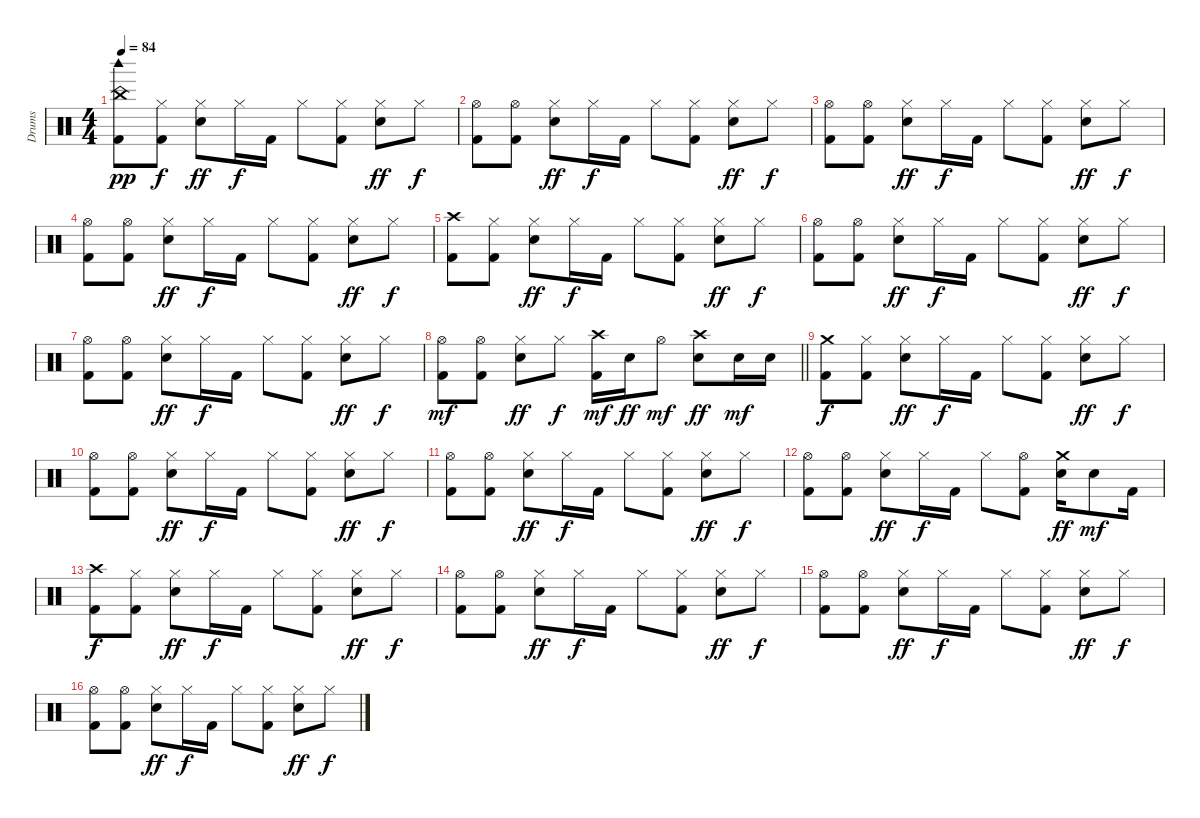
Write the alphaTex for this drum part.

\track ("Drums" "Drums") {instrument percussion}
\staff {score}
\articulation defaults
\ts (4 4)
\tempo 84
\clef neutral
\ks c
("China (hit)" "Woodblock high (hit)" "Kick (hit) 2").8{dy pp balance 8} ("Hi-Hat (closed)" "Kick (hit) 2").8{dy f} ("Hi-Hat (closed)" "Electric Snare (hit)").8{dy ff} "Hi-Hat (closed)".16{dy f} "Kick (hit) 2".16 "Hi-Hat (closed)".8 ("Hi-Hat (closed)" "Kick (hit) 2").8 ("Hi-Hat (closed)" "Electric Snare (hit)").8{dy ff} "Hi-Hat (closed)".8{dy f} |
("Hi-Hat (open)" "Kick (hit) 2").8 ("Hi-Hat (open)" "Kick (hit) 2").8 ("Hi-Hat (closed)" "Electric Snare (hit)").8{dy ff} "Hi-Hat (closed)".16{dy f} "Kick (hit) 2".16 "Hi-Hat (closed)".8 ("Hi-Hat (closed)" "Kick (hit) 2").8 ("Hi-Hat (closed)" "Electric Snare (hit)").8{dy ff} "Hi-Hat (closed)".8{dy f} |
("Hi-Hat (open)" "Kick (hit) 2").8 ("Hi-Hat (open)" "Kick (hit) 2").8 ("Hi-Hat (closed)" "Electric Snare (hit)").8{dy ff} "Hi-Hat (closed)".16{dy f} "Kick (hit) 2".16 "Hi-Hat (closed)".8 ("Hi-Hat (closed)" "Kick (hit) 2").8 ("Hi-Hat (closed)" "Electric Snare (hit)").8{dy ff} "Hi-Hat (closed)".8{dy f} |
("Hi-Hat (open)" "Kick (hit) 2").8 ("Hi-Hat (open)" "Kick (hit) 2").8 ("Hi-Hat (closed)" "Electric Snare (hit)").8{dy ff} "Hi-Hat (closed)".16{dy f} "Kick (hit) 2".16 "Hi-Hat (closed)".8 ("Hi-Hat (closed)" "Kick (hit) 2").8 ("Hi-Hat (closed)" "Electric Snare (hit)").8{dy ff} "Hi-Hat (closed)".8{dy f} |
("Crash high (hit)" "Kick (hit) 2").8 ("Hi-Hat (closed)" "Kick (hit) 2").8 ("Hi-Hat (closed)" "Electric Snare (hit)").8{dy ff} "Hi-Hat (closed)".16{dy f} "Kick (hit) 2".16 "Hi-Hat (closed)".8 ("Hi-Hat (closed)" "Kick (hit) 2").8 ("Hi-Hat (closed)" "Electric Snare (hit)").8{dy ff} "Hi-Hat (closed)".8{dy f} |
("Hi-Hat (open)" "Kick (hit) 2").8 ("Hi-Hat (open)" "Kick (hit) 2").8 ("Hi-Hat (closed)" "Electric Snare (hit)").8{dy ff} "Hi-Hat (closed)".16{dy f} "Kick (hit) 2".16 "Hi-Hat (closed)".8 ("Hi-Hat (closed)" "Kick (hit) 2").8 ("Hi-Hat (closed)" "Electric Snare (hit)").8{dy ff} "Hi-Hat (closed)".8{dy f} |
("Hi-Hat (open)" "Kick (hit) 2").8 ("Hi-Hat (open)" "Kick (hit) 2").8 ("Hi-Hat (closed)" "Electric Snare (hit)").8{dy ff} "Hi-Hat (closed)".16{dy f} "Kick (hit) 2".16 "Hi-Hat (closed)".8 ("Hi-Hat (closed)" "Kick (hit) 2").8 ("Hi-Hat (closed)" "Electric Snare (hit)").8{dy ff} "Hi-Hat (closed)".8{dy f} |
\barLineRight lightlight
("Hi-Hat (open)" "Kick (hit) 2").8{dy mf} ("Hi-Hat (open)" "Kick (hit) 2").8 ("Hi-Hat (closed)" "Electric Snare (hit)").8{dy ff} "Hi-Hat (closed)".8{dy f} ("Crash high (hit)" "Kick (hit) 2").16{dy mf} "Electric Snare (hit)".16{dy ff} "Hi-Hat (open)".8{dy mf} ("Crash high (hit)" "Electric Snare (hit)").8{dy ff} "Electric Snare (hit)".16{dy mf} "Electric Snare (hit)".16 |
("Crash medium (hit)" "Kick (hit) 2").8{dy f} ("Hi-Hat (closed)" "Kick (hit) 2").8 ("Hi-Hat (closed)" "Electric Snare (hit)").8{dy ff} "Hi-Hat (closed)".16{dy f} "Kick (hit) 2".16 "Hi-Hat (closed)".8 ("Hi-Hat (closed)" "Kick (hit) 2").8 ("Hi-Hat (closed)" "Electric Snare (hit)").8{dy ff} "Hi-Hat (closed)".8{dy f} |
("Hi-Hat (open)" "Kick (hit) 2").8 ("Hi-Hat (open)" "Kick (hit) 2").8 ("Hi-Hat (closed)" "Electric Snare (hit)").8{dy ff} "Hi-Hat (closed)".16{dy f} "Kick (hit) 2".16 "Hi-Hat (closed)".8 ("Hi-Hat (closed)" "Kick (hit) 2").8 ("Hi-Hat (closed)" "Electric Snare (hit)").8{dy ff} "Hi-Hat (closed)".8{dy f} |
("Hi-Hat (open)" "Kick (hit) 2").8 ("Hi-Hat (open)" "Kick (hit) 2").8 ("Hi-Hat (closed)" "Electric Snare (hit)").8{dy ff} "Hi-Hat (closed)".16{dy f} "Kick (hit) 2".16 "Hi-Hat (closed)".8 ("Hi-Hat (closed)" "Kick (hit) 2").8 ("Hi-Hat (closed)" "Electric Snare (hit)").8{dy ff} "Hi-Hat (closed)".8{dy f} |
("Hi-Hat (open)" "Kick (hit) 2").8 ("Hi-Hat (open)" "Kick (hit) 2").8 ("Hi-Hat (closed)" "Electric Snare (hit)").8{dy ff} "Hi-Hat (closed)".16{dy f} "Kick (hit) 2".16 "Hi-Hat (closed)".8 ("Hi-Hat (open)" "Kick (hit) 2").8 ("Crash medium (hit)" "Electric Snare (hit)").16{dy ff} "Electric Snare (hit)".8{dy mf} "Kick (hit) 2".16 |
("Crash high (hit)" "Kick (hit) 2").8{dy f} ("Hi-Hat (closed)" "Kick (hit) 2").8 ("Hi-Hat (closed)" "Electric Snare (hit)").8{dy ff} "Hi-Hat (closed)".16{dy f} "Kick (hit) 2".16 "Hi-Hat (closed)".8 ("Hi-Hat (closed)" "Kick (hit) 2").8 ("Hi-Hat (closed)" "Electric Snare (hit)").8{dy ff} "Hi-Hat (closed)".8{dy f} |
("Hi-Hat (open)" "Kick (hit) 2").8 ("Hi-Hat (open)" "Kick (hit) 2").8 ("Hi-Hat (closed)" "Electric Snare (hit)").8{dy ff} "Hi-Hat (closed)".16{dy f} "Kick (hit) 2".16 "Hi-Hat (closed)".8 ("Hi-Hat (closed)" "Kick (hit) 2").8 ("Hi-Hat (closed)" "Electric Snare (hit)").8{dy ff} "Hi-Hat (closed)".8{dy f} |
("Hi-Hat (open)" "Kick (hit) 2").8 ("Hi-Hat (open)" "Kick (hit) 2").8 ("Hi-Hat (closed)" "Electric Snare (hit)").8{dy ff} "Hi-Hat (closed)".16{dy f} "Kick (hit) 2".16 "Hi-Hat (closed)".8 ("Hi-Hat (closed)" "Kick (hit) 2").8 ("Hi-Hat (closed)" "Electric Snare (hit)").8{dy ff} "Hi-Hat (closed)".8{dy f} |
("Hi-Hat (open)" "Kick (hit) 2").8 ("Hi-Hat (open)" "Kick (hit) 2").8 ("Hi-Hat (closed)" "Electric Snare (hit)").8{dy ff} "Hi-Hat (closed)".16{dy f} "Kick (hit) 2".16 "Hi-Hat (closed)".8 ("Hi-Hat (closed)" "Kick (hit) 2").8 ("Hi-Hat (closed)" "Electric Snare (hit)").8{dy ff} "Hi-Hat (closed)".8{dy f}
